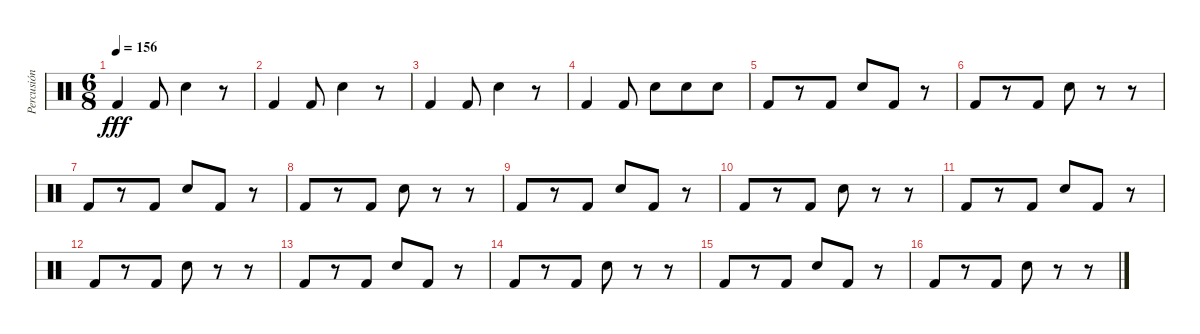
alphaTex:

\track ("Percusión" "Percusión") {instrument percussion}
\staff {score}
\articulation defaults
\ts (6 8)
\tempo 156
\clef neutral
\ks c "Kick (hit) 2".4{dy fff} "Kick (hit) 2".8 "Snare (hit) 2".4
r.8 |
"Kick (hit) 2".4 "Kick (hit) 2".8 "Snare (hit) 2".4 r.8 |
"Kick (hit) 2".4 "Kick (hit) 2".8 "Snare (hit) 2".4 r.8 |
"Kick (hit) 2".4 "Kick (hit) 2".8 "Snare (hit) 2".8 "Snare (hit) 2".8 "Snare (hit) 2".8 |
"Kick (hit) 2".8 r.8 "Kick (hit) 2".8 "Snare (hit) 2".8 "Kick (hit) 2".8 r.8 |
"Kick (hit) 2".8 r.8 "Kick (hit) 2".8 "Snare (hit) 2".8 r.8 r.8 |
"Kick (hit) 2".8 r.8 "Kick (hit) 2".8 "Snare (hit) 2".8 "Kick (hit) 2".8 r.8 |
"Kick (hit) 2".8 r.8 "Kick (hit) 2".8 "Snare (hit) 2".8 r.8 r.8 |
"Kick (hit) 2".8 r.8 "Kick (hit) 2".8 "Snare (hit) 2".8 "Kick (hit) 2".8 r.8 |
"Kick (hit) 2".8 r.8 "Kick (hit) 2".8 "Snare (hit) 2".8 r.8 r.8 |
"Kick (hit) 2".8 r.8 "Kick (hit) 2".8 "Snare (hit) 2".8 "Kick (hit) 2".8 r.8 |
"Kick (hit) 2".8 r.8 "Kick (hit) 2".8 "Snare (hit) 2".8 r.8 r.8 |
"Kick (hit) 2".8 r.8 "Kick (hit) 2".8 "Snare (hit) 2".8 "Kick (hit) 2".8 r.8 |
"Kick (hit) 2".8 r.8 "Kick (hit) 2".8 "Snare (hit) 2".8 r.8 r.8 |
"Kick (hit) 2".8 r.8 "Kick (hit) 2".8 "Snare (hit) 2".8 "Kick (hit) 2".8 r.8 |
"Kick (hit) 2".8 r.8 "Kick (hit) 2".8 "Snare (hit) 2".8 r.8 r.8
